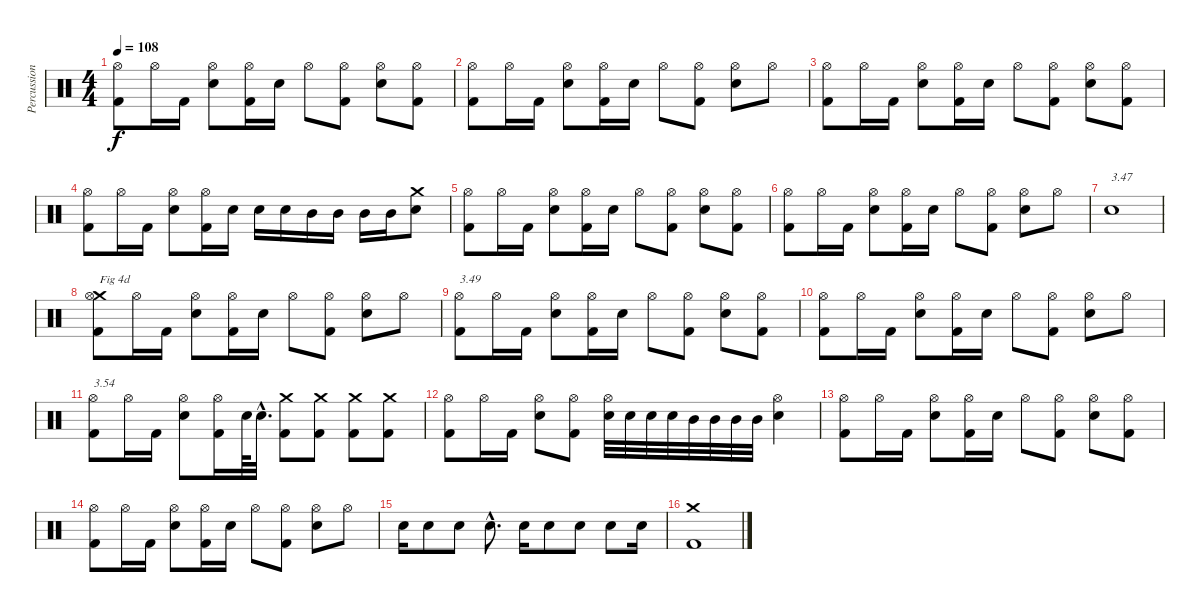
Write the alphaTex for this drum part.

\track ("Percussions" "Percussion") {instrument percussion}
\staff {score}
\articulation defaults
\ts (4 4)
\tempo 108
\clef neutral
\ks c
("Kick (hit) 2" "Hi-Hat (open)").8{dy f} "Hi-Hat (open)".16 "Kick (hit) 2".16 ("Electric Snare (hit)" "Hi-Hat (open)").8 ("Kick (hit) 2" "Hi-Hat (open)").16 "Electric Snare (hit)".16 "Hi-Hat (open)".8 ("Kick (hit) 2" "Hi-Hat (open)").8 ("Electric Snare (hit)" "Hi-Hat (open)").8 ("Kick (hit) 2" "Hi-Hat (open)").8 |
("Kick (hit) 2" "Hi-Hat (open)").8 "Hi-Hat (open)".16 "Kick (hit) 2".16 ("Electric Snare (hit)" "Hi-Hat (open)").8 ("Kick (hit) 2" "Hi-Hat (open)").16 "Electric Snare (hit)".16 "Hi-Hat (open)".8 ("Kick (hit) 2" "Hi-Hat (open)").8 ("Electric Snare (hit)" "Hi-Hat (open)").8 "Hi-Hat (open)".8 |
("Kick (hit) 2" "Hi-Hat (open)").8 "Hi-Hat (open)".16 "Kick (hit) 2".16 ("Electric Snare (hit)" "Hi-Hat (open)").8 ("Kick (hit) 2" "Hi-Hat (open)").16 "Electric Snare (hit)".16 "Hi-Hat (open)".8 ("Kick (hit) 2" "Hi-Hat (open)").8 ("Electric Snare (hit)" "Hi-Hat (open)").8 ("Kick (hit) 2" "Hi-Hat (open)").8 |
("Kick (hit) 2" "Hi-Hat (open)").8 "Hi-Hat (open)".16 "Kick (hit) 2".16 ("Electric Snare (hit)" "Hi-Hat (open)").8 ("Kick (hit) 2" "Hi-Hat (open)").16 "Electric Snare (hit)".16 "Electric Snare (hit)".16 "Electric Snare (hit)".16 "Mid Tom (hit)".16 "Mid Tom (hit)".16 "Mid Tom (hit)".16 "Mid Tom (hit)".16 ("Electric Snare (hit)" "Crash medium (hit)").8 |
("Kick (hit) 2" "Hi-Hat (open)").8 "Hi-Hat (open)".16 "Kick (hit) 2".16 ("Electric Snare (hit)" "Hi-Hat (open)").8 ("Kick (hit) 2" "Hi-Hat (open)").16 "Electric Snare (hit)".16 "Hi-Hat (open)".8 ("Kick (hit) 2" "Hi-Hat (open)").8 ("Electric Snare (hit)" "Hi-Hat (open)").8 ("Kick (hit) 2" "Hi-Hat (open)").8 |
("Kick (hit) 2" "Hi-Hat (open)").8 "Hi-Hat (open)".16 "Kick (hit) 2".16 ("Electric Snare (hit)" "Hi-Hat (open)").8 ("Kick (hit) 2" "Hi-Hat (open)").16 "Electric Snare (hit)".16 "Hi-Hat (open)".8 ("Kick (hit) 2" "Hi-Hat (open)").8 ("Electric Snare (hit)" "Hi-Hat (open)").8 "Hi-Hat (open)".8 |
"Electric Snare (hit)".1{txt "3.47"} |
("Kick (hit) 2" "Crash medium (hit)" "Hi-Hat (open)").8{txt "Fig 4d"} "Hi-Hat (open)".16 "Kick (hit) 2".16 ("Electric Snare (hit)" "Hi-Hat (open)").8 ("Kick (hit) 2" "Hi-Hat (open)").16 "Electric Snare (hit)".16 "Hi-Hat (open)".8 ("Kick (hit) 2" "Hi-Hat (open)").8 ("Electric Snare (hit)" "Hi-Hat (open)").8 "Hi-Hat (open)".8 |
("Kick (hit) 2" "Hi-Hat (open)").8{txt "3.49"} "Hi-Hat (open)".16 "Kick (hit) 2".16 ("Electric Snare (hit)" "Hi-Hat (open)").8 ("Kick (hit) 2" "Hi-Hat (open)").16 "Electric Snare (hit)".16 "Hi-Hat (open)".8 ("Kick (hit) 2" "Hi-Hat (open)").8 ("Electric Snare (hit)" "Hi-Hat (open)").8 ("Kick (hit) 2" "Hi-Hat (open)").8 |
("Kick (hit) 2" "Hi-Hat (open)").8 "Hi-Hat (open)".16 "Kick (hit) 2".16 ("Electric Snare (hit)" "Hi-Hat (open)").8 ("Kick (hit) 2" "Hi-Hat (open)").16 "Electric Snare (hit)".16 "Hi-Hat (open)".8 ("Kick (hit) 2" "Hi-Hat (open)").8 ("Electric Snare (hit)" "Hi-Hat (open)").8 "Hi-Hat (open)".8 |
("Kick (hit) 2" "Hi-Hat (open)").8{txt "3.54"} "Hi-Hat (open)".16 "Kick (hit) 2".16 ("Electric Snare (hit)" "Hi-Hat (open)").8 ("Kick (hit) 2" "Hi-Hat (open)").16 "Electric Snare (hit)".64 "Electric Snare (hit)"{hac}.32{d} ("Kick (hit) 2" "Crash medium (hit)").8 ("Kick (hit) 2" "Crash medium (hit)").8 ("Kick (hit) 2" "Crash medium (hit)").8 ("Kick (hit) 2" "Crash medium (hit)").8 |
("Kick (hit) 2" "Hi-Hat (open)").8 "Hi-Hat (open)".16 "Kick (hit) 2".16 ("Electric Snare (hit)" "Hi-Hat (open)").8 ("Kick (hit) 2" "Hi-Hat (open)").8 ("Electric Snare (hit)" "Hi-Hat (open)").32 "Electric Snare (hit)".32 "Electric Snare (hit)".32 "Electric Snare (hit)".32 "Mid Tom (hit)".32 "Mid Tom (hit)".32 "Mid Tom (hit)".32 "Mid Tom (hit)".32 ("Electric Snare (hit)" "Hi-Hat (open)").4 |
("Kick (hit) 2" "Hi-Hat (open)").8 "Hi-Hat (open)".16 "Kick (hit) 2".16 ("Electric Snare (hit)" "Hi-Hat (open)").8 ("Kick (hit) 2" "Hi-Hat (open)").16 "Electric Snare (hit)".16 "Hi-Hat (open)".8 ("Kick (hit) 2" "Hi-Hat (open)").8 ("Electric Snare (hit)" "Hi-Hat (open)").8 ("Kick (hit) 2" "Hi-Hat (open)").8 |
("Kick (hit) 2" "Hi-Hat (open)").8 "Hi-Hat (open)".16 "Kick (hit) 2".16 ("Electric Snare (hit)" "Hi-Hat (open)").8 ("Kick (hit) 2" "Hi-Hat (open)").16 "Electric Snare (hit)".16 "Hi-Hat (open)".8 ("Kick (hit) 2" "Hi-Hat (open)").8 ("Electric Snare (hit)" "Hi-Hat (open)").8 "Hi-Hat (open)".8 |
"Electric Snare (hit)".16 "Electric Snare (hit)".8 "Electric Snare (hit)".8 "Electric Snare (hit)"{hac}.8{d} "Electric Snare (hit)".16 "Electric Snare (hit)".8 "Electric Snare (hit)".8 "Electric Snare (hit)".8 "Electric Snare (hit)".16 |
("Kick (hit) 2" "Crash medium (hit)").1
